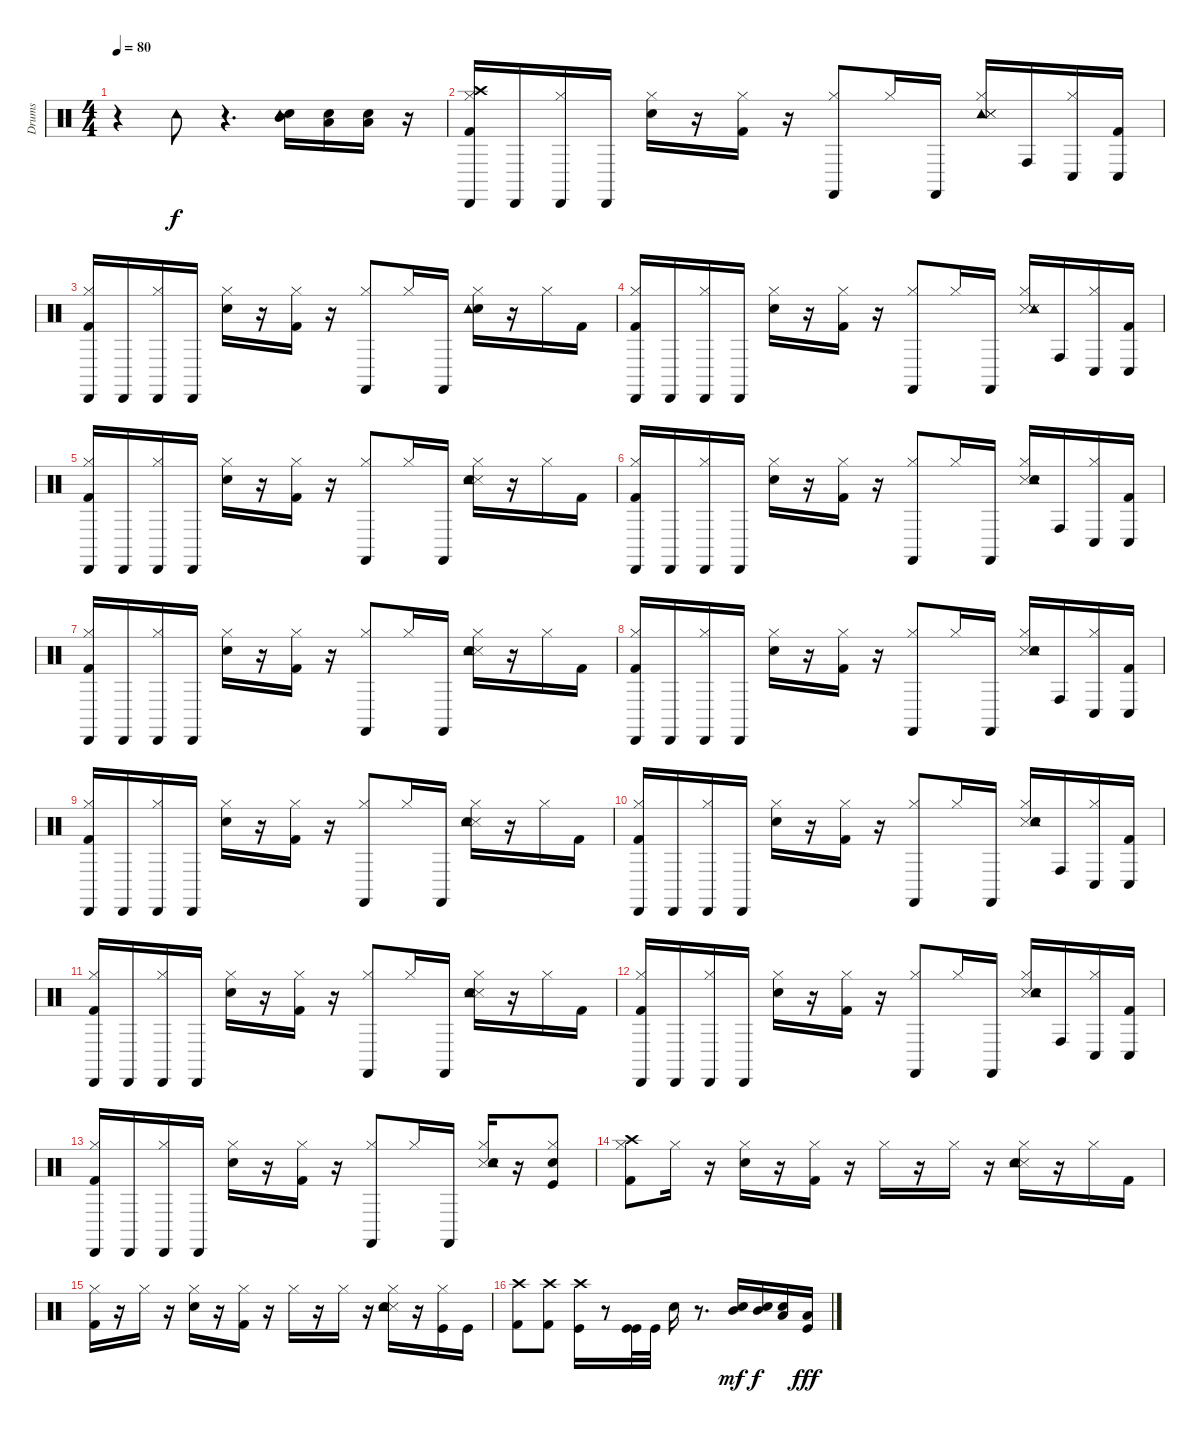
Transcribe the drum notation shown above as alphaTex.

\track ("Drums" "Drums") {instrument percussion}
\staff {score}
\articulation defaults
\ts (4 4)
\tempo 80
\clef neutral
\ks c
r.4{dy f} "Tambourine (hit)".8 r.4{d} ("Mid Tom (hit)" "Snare (hit) 2" "Tambourine (hit)").16 ("Low Tom (hit)" "Snare (hit) 2").16 ("Low Tom (hit)" "Snare (hit) 2").16 r.16 |
("Crash high (hit)" "Cabasa (hit)" "Hi-Hat (closed)" "Kick (hit) 2").16 "Cabasa (hit)".16 ("Cabasa (hit)" "Hi-Hat (closed)").16 "Cabasa (hit)".16 ("Hi-Hat (closed)" "Electric Snare (hit)").16 r.16 ("Kick (hit) 2" "Hi-Hat (closed)").16 r.16 ("Castanets (hit)" "Hi-Hat (closed)").8 "Hi-Hat (closed)".16 "Castanets (hit)".16 ("Tambourine (hit)" "Metronome (hit)" "Hi-Hat (closed)" "Snare (side stick) 3").16 "Conga high (hit)".16 ("Hi-Hat (closed)" "Conga low (hit)").16 ("Kick (hit) 2" "Conga low (hit)").16 |
("Hi-Hat (closed)" "Kick (hit) 2" "Cabasa (hit)").16 "Cabasa (hit)".16 ("Hi-Hat (closed)" "Cabasa (hit)").16 "Cabasa (hit)".16 ("Hi-Hat (closed)" "Electric Snare (hit)").16 r.16 ("Kick (hit) 2" "Hi-Hat (closed)").16 r.16 ("Castanets (hit)" "Hi-Hat (closed)").8 "Hi-Hat (closed)".16 "Castanets (hit)".16 ("Snare (hit) 2" "Tambourine (hit)" "Hi-Hat (closed)").16 r.16 "Hi-Hat (closed)".16 "Kick (hit) 2".16 |
("Hi-Hat (closed)" "Kick (hit) 2" "Cabasa (hit)").16 "Cabasa (hit)".16 ("Cabasa (hit)" "Hi-Hat (closed)").16 "Cabasa (hit)".16 ("Hi-Hat (closed)" "Electric Snare (hit)").16 r.16 ("Kick (hit) 2" "Hi-Hat (closed)").16 r.16 ("Castanets (hit)" "Hi-Hat (closed)").8 "Hi-Hat (closed)".16 "Castanets (hit)".16 ("Metronome (hit)" "Snare (side stick) 3" "Hi-Hat (closed)" "Tambourine (hit)").16 "Conga high (hit)".16 ("Hi-Hat (closed)" "Conga low (hit)").16 ("Kick (hit) 2" "Conga low (hit)").16 |
("Hi-Hat (closed)" "Kick (hit) 2" "Cabasa (hit)").16 "Cabasa (hit)".16 ("Cabasa (hit)" "Hi-Hat (closed)").16 "Cabasa (hit)".16 ("Electric Snare (hit)" "Hi-Hat (closed)").16 r.16 ("Hi-Hat (closed)" "Kick (hit) 2").16 r.16 ("Hi-Hat (closed)" "Castanets (hit)").8 "Hi-Hat (closed)".16 "Castanets (hit)".16 ("Metronome (hit)" "Snare (hit) 2" "Tambourine (hit)" "Hi-Hat (closed)").16 r.16 "Hi-Hat (closed)".16 "Kick (hit) 2".16 |
("Hi-Hat (closed)" "Kick (hit) 2" "Cabasa (hit)").16 "Cabasa (hit)".16 ("Cabasa (hit)" "Hi-Hat (closed)").16 "Cabasa (hit)".16 ("Hi-Hat (closed)" "Electric Snare (hit)").16 r.16 ("Kick (hit) 2" "Hi-Hat (closed)").16 r.16 ("Castanets (hit)" "Hi-Hat (closed)").8 "Hi-Hat (closed)".16 "Castanets (hit)".16 ("Metronome (hit)" "Snare (hit) 2" "Hi-Hat (closed)" "Tambourine (hit)").16 "Conga high (hit)".16 ("Hi-Hat (closed)" "Conga low (hit)").16 ("Kick (hit) 2" "Conga low (hit)").16 |
("Hi-Hat (closed)" "Kick (hit) 2" "Cabasa (hit)").16 "Cabasa (hit)".16 ("Cabasa (hit)" "Hi-Hat (closed)").16 "Cabasa (hit)".16 ("Electric Snare (hit)" "Hi-Hat (closed)").16 r.16 ("Hi-Hat (closed)" "Kick (hit) 2").16 r.16 ("Hi-Hat (closed)" "Castanets (hit)").8 "Hi-Hat (closed)".16 "Castanets (hit)".16 ("Metronome (hit)" "Snare (hit) 2" "Tambourine (hit)" "Hi-Hat (closed)").16 r.16 "Hi-Hat (closed)".16 "Kick (hit) 2".16 |
("Hi-Hat (closed)" "Kick (hit) 2" "Cabasa (hit)").16 "Cabasa (hit)".16 ("Cabasa (hit)" "Hi-Hat (closed)").16 "Cabasa (hit)".16 ("Hi-Hat (closed)" "Electric Snare (hit)").16 r.16 ("Kick (hit) 2" "Hi-Hat (closed)").16 r.16 ("Castanets (hit)" "Hi-Hat (closed)").8 "Hi-Hat (closed)".16 "Castanets (hit)".16 ("Metronome (hit)" "Snare (hit) 2" "Hi-Hat (closed)" "Tambourine (hit)").16 "Conga high (hit)".16 ("Hi-Hat (closed)" "Conga low (hit)").16 ("Kick (hit) 2" "Conga low (hit)").16 |
("Hi-Hat (closed)" "Kick (hit) 2" "Cabasa (hit)").16 "Cabasa (hit)".16 ("Cabasa (hit)" "Hi-Hat (closed)").16 "Cabasa (hit)".16 ("Electric Snare (hit)" "Hi-Hat (closed)").16 r.16 ("Hi-Hat (closed)" "Kick (hit) 2").16 r.16 ("Hi-Hat (closed)" "Castanets (hit)").8 "Hi-Hat (closed)".16 "Castanets (hit)".16 ("Metronome (hit)" "Snare (hit) 2" "Tambourine (hit)" "Hi-Hat (closed)").16 r.16 "Hi-Hat (closed)".16 "Kick (hit) 2".16 |
("Hi-Hat (closed)" "Kick (hit) 2" "Cabasa (hit)").16 "Cabasa (hit)".16 ("Cabasa (hit)" "Hi-Hat (closed)").16 "Cabasa (hit)".16 ("Hi-Hat (closed)" "Electric Snare (hit)").16 r.16 ("Kick (hit) 2" "Hi-Hat (closed)").16 r.16 ("Castanets (hit)" "Hi-Hat (closed)").8 "Hi-Hat (closed)".16 "Castanets (hit)".16 ("Metronome (hit)" "Snare (hit) 2" "Hi-Hat (closed)" "Tambourine (hit)").16 "Conga high (hit)".16 ("Hi-Hat (closed)" "Conga low (hit)").16 ("Kick (hit) 2" "Conga low (hit)").16 |
("Hi-Hat (closed)" "Kick (hit) 2" "Cabasa (hit)").16 "Cabasa (hit)".16 ("Cabasa (hit)" "Hi-Hat (closed)").16 "Cabasa (hit)".16 ("Electric Snare (hit)" "Hi-Hat (closed)").16 r.16 ("Hi-Hat (closed)" "Kick (hit) 2").16 r.16 ("Hi-Hat (closed)" "Castanets (hit)").8 "Hi-Hat (closed)".16 "Castanets (hit)".16 ("Metronome (hit)" "Snare (hit) 2" "Tambourine (hit)" "Hi-Hat (closed)").16 r.16 "Hi-Hat (closed)".16 "Kick (hit) 2".16 |
("Hi-Hat (closed)" "Kick (hit) 2" "Cabasa (hit)").16 "Cabasa (hit)".16 ("Cabasa (hit)" "Hi-Hat (closed)").16 "Cabasa (hit)".16 ("Hi-Hat (closed)" "Electric Snare (hit)").16 r.16 ("Kick (hit) 2" "Hi-Hat (closed)").16 r.16 ("Castanets (hit)" "Hi-Hat (closed)").8 "Hi-Hat (closed)".16 "Castanets (hit)".16 ("Metronome (hit)" "Snare (hit) 2" "Hi-Hat (closed)" "Tambourine (hit)").16 "Conga high (hit)".16 ("Hi-Hat (closed)" "Conga low (hit)").16 ("Kick (hit) 2" "Conga low (hit)").16 |
("Hi-Hat (closed)" "Kick (hit) 2" "Cabasa (hit)").16 "Cabasa (hit)".16 ("Cabasa (hit)" "Hi-Hat (closed)").16 "Cabasa (hit)".16 ("Electric Snare (hit)" "Hi-Hat (closed)").16 r.16 ("Hi-Hat (closed)" "Kick (hit) 2").16 r.16 ("Hi-Hat (closed)" "Castanets (hit)").8 "Hi-Hat (closed)".16 "Castanets (hit)".16 ("Metronome (hit)" "Snare (hit) 2" "Tambourine (hit)" "Hi-Hat (closed)").16 r.16 ("Snare (hit) 2" "Kick (hit)" "Hi-Hat (closed)").8 |
("Crash high (hit)" "Hi-Hat (closed)" "Kick (hit) 2").8 "Hi-Hat (closed)".16 r.16 ("Hi-Hat (closed)" "Electric Snare (hit)").16 r.16 ("Kick (hit) 2" "Hi-Hat (closed)").16 r.16 "Hi-Hat (closed)".16 r.16 "Hi-Hat (closed)".16 r.16 ("Metronome (hit)" "Snare (hit) 2" "Hi-Hat (closed)" "Tambourine (hit)").16 r.16 "Hi-Hat (closed)".16 "Kick (hit) 2".16 |
("Hi-Hat (closed)" "Kick (hit) 2").16 r.16 "Hi-Hat (closed)".16 r.16 ("Electric Snare (hit)" "Hi-Hat (closed)").16 r.16 ("Hi-Hat (closed)" "Kick (hit) 2").16 r.16 "Hi-Hat (closed)".16 r.16 "Hi-Hat (closed)".16 r.16 ("Metronome (hit)" "Snare (hit) 2" "Tambourine (hit)" "Hi-Hat (closed)").16 r.16 ("Kick (hit)" "Hi-Hat (closed)").16 "Kick (hit)".16 |
("Crash high (hit)" "Kick (hit) 2").8 ("Crash high (hit)" "Kick (hit) 2").8 ("Crash high (hit)" "Kick (hit)").16 r.8 ("Kick (hit)" "Kick (hit)").32 "Kick (hit)".32 "Snare (hit) 2".16 r.8{d} ("Mid Tom (hit)" "Snare (hit) 2").16{dy mf} ("Mid Tom (hit)" "Snare (hit) 2").16{dy f} ("Low Tom (hit)" "Snare (hit) 2").16 ("Low Tom (hit)" "Kick (hit)").16{dy fff}
